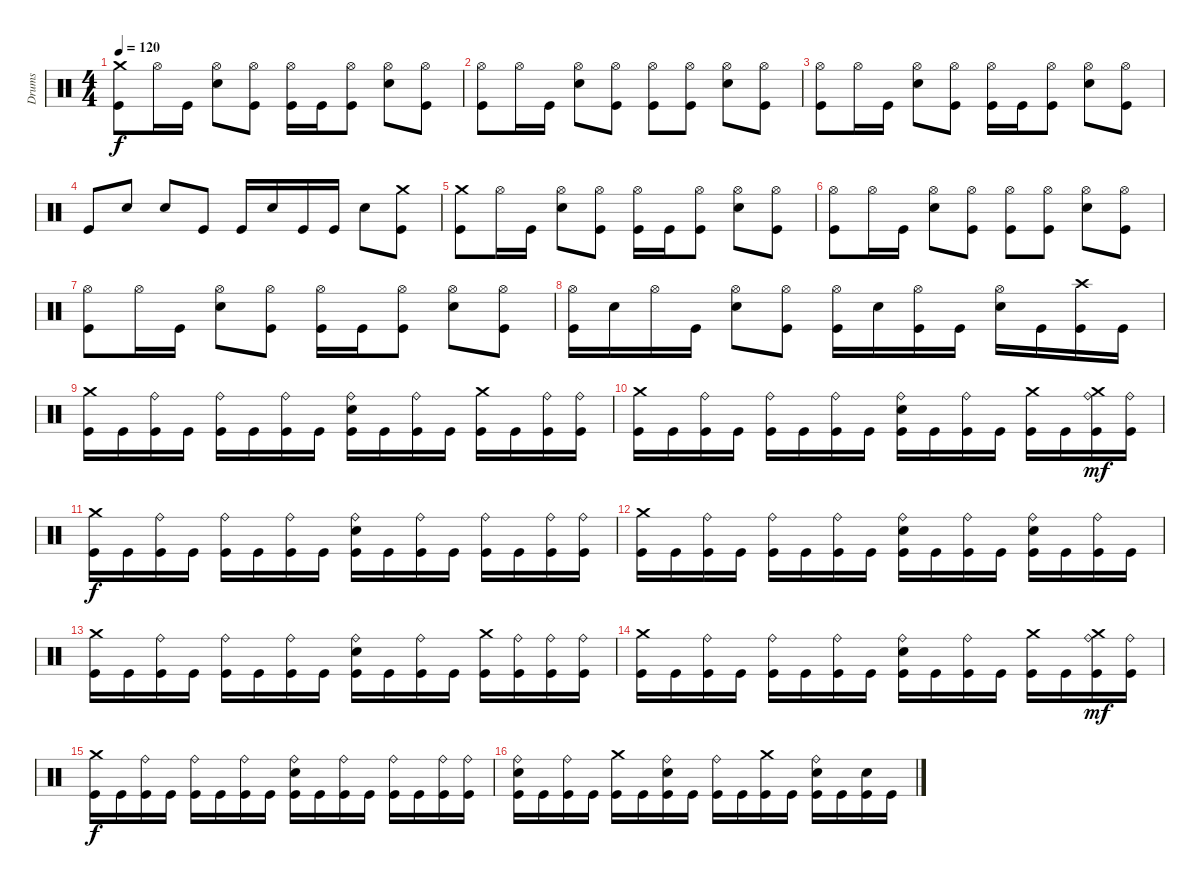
\track ("Drums" "Drums") {instrument percussion}
\staff {score}
\articulation defaults
\ts (4 4)
\tempo 120
\clef neutral
\ks c
("Kick (hit)" "Crash medium (hit)").8{dy f} "Hi-Hat (open)".16 "Kick (hit)".16 ("Electric Snare (hit)" "Hi-Hat (open)").8 ("Kick (hit)" "Hi-Hat (open)").8 ("Kick (hit)" "Hi-Hat (open)").16 "Kick (hit)".16 ("Kick (hit)" "Hi-Hat (open)").8 ("Electric Snare (hit)" "Hi-Hat (open)").8 ("Kick (hit)" "Hi-Hat (open)").8 |
("Kick (hit)" "Hi-Hat (open)").8 "Hi-Hat (open)".16 "Kick (hit)".16 ("Electric Snare (hit)" "Hi-Hat (open)").8 ("Kick (hit)" "Hi-Hat (open)").8 ("Kick (hit)" "Hi-Hat (open)").8 ("Kick (hit)" "Hi-Hat (open)").8 ("Electric Snare (hit)" "Hi-Hat (open)").8 ("Kick (hit)" "Hi-Hat (open)").8 |
("Kick (hit)" "Hi-Hat (open)").8 "Hi-Hat (open)".16 "Kick (hit)".16 ("Electric Snare (hit)" "Hi-Hat (open)").8 ("Kick (hit)" "Hi-Hat (open)").8 ("Kick (hit)" "Hi-Hat (open)").16 "Kick (hit)".16 ("Kick (hit)" "Hi-Hat (open)").8 ("Electric Snare (hit)" "Hi-Hat (open)").8 ("Kick (hit)" "Hi-Hat (open)").8 |
"Kick (hit)".8 "Electric Snare (hit)".8 "Electric Snare (hit)".8 "Kick (hit)".8 "Kick (hit)".16 "Electric Snare (hit)".16 "Kick (hit)".16 "Kick (hit)".16 "Electric Snare (hit)".8 ("Kick (hit)" "Crash medium (hit)").8 |
("Kick (hit)" "Crash medium (hit)").8 "Hi-Hat (open)".16 "Kick (hit)".16 ("Electric Snare (hit)" "Hi-Hat (open)").8 ("Kick (hit)" "Hi-Hat (open)").8 ("Kick (hit)" "Hi-Hat (open)").16 "Kick (hit)".16 ("Kick (hit)" "Hi-Hat (open)").8 ("Electric Snare (hit)" "Hi-Hat (open)").8 ("Kick (hit)" "Hi-Hat (open)").8 |
("Kick (hit)" "Hi-Hat (open)").8 "Hi-Hat (open)".16 "Kick (hit)".16 ("Electric Snare (hit)" "Hi-Hat (open)").8 ("Kick (hit)" "Hi-Hat (open)").8 ("Kick (hit)" "Hi-Hat (open)").8 ("Kick (hit)" "Hi-Hat (open)").8 ("Electric Snare (hit)" "Hi-Hat (open)").8 ("Kick (hit)" "Hi-Hat (open)").8 |
("Kick (hit)" "Hi-Hat (open)").8 "Hi-Hat (open)".16 "Kick (hit)".16 ("Electric Snare (hit)" "Hi-Hat (open)").8 ("Kick (hit)" "Hi-Hat (open)").8 ("Kick (hit)" "Hi-Hat (open)").16 "Kick (hit)".16 ("Kick (hit)" "Hi-Hat (open)").8 ("Electric Snare (hit)" "Hi-Hat (open)").8 ("Kick (hit)" "Hi-Hat (open)").8 |
("Kick (hit)" "Hi-Hat (open)").16 "Electric Snare (hit)".16 "Hi-Hat (open)".16 "Kick (hit)".16 ("Electric Snare (hit)" "Hi-Hat (open)").8 ("Kick (hit)" "Hi-Hat (open)").8 ("Kick (hit)" "Hi-Hat (open)").16 "Electric Snare (hit)".16 ("Kick (hit)" "Hi-Hat (open)").16 "Kick (hit)".16 ("Electric Snare (hit)" "Hi-Hat (open)").16 "Kick (hit)".16 ("Kick (hit)" "Crash high (hit)").16 "Kick (hit)".16 |
("Kick (hit)" "Crash medium (hit)").16 "Kick (hit)".16 ("Kick (hit)" "Ride (bell)").16 "Kick (hit)".16 ("Kick (hit)" "Ride (bell)").16 "Kick (hit)".16 ("Kick (hit)" "Ride (bell)").16 "Kick (hit)".16 ("Kick (hit)" "Electric Snare (hit)" "Ride (bell)").16 "Kick (hit)".16 ("Kick (hit)" "Ride (bell)").16 "Kick (hit)".16 ("Kick (hit)" "Crash medium (hit)").16 "Kick (hit)".16 ("Kick (hit)" "Ride (bell)").16 ("Kick (hit)" "Ride (bell)").16 |
("Kick (hit)" "Crash medium (hit)").16 "Kick (hit)".16 ("Kick (hit)" "Ride (bell)").16 "Kick (hit)".16 ("Kick (hit)" "Ride (bell)").16 "Kick (hit)".16 ("Kick (hit)" "Ride (bell)").16 "Kick (hit)".16 ("Kick (hit)" "Electric Snare (hit)" "Ride (bell)").16 "Kick (hit)".16 ("Kick (hit)" "Ride (bell)").16 "Kick (hit)".16 ("Kick (hit)" "Crash medium (hit)").16 "Kick (hit)".16 ("Kick (hit)" "Ride (bell)" "Crash medium (hit)").16{dy mf} ("Kick (hit)" "Ride (bell)").16 |
("Kick (hit)" "Crash medium (hit)").16{dy f} "Kick (hit)".16 ("Kick (hit)" "Ride (bell)").16 "Kick (hit)".16 ("Kick (hit)" "Ride (bell)").16 "Kick (hit)".16 ("Kick (hit)" "Ride (bell)").16 "Kick (hit)".16 ("Kick (hit)" "Electric Snare (hit)" "Ride (bell)").16 "Kick (hit)".16 ("Kick (hit)" "Ride (bell)").16 "Kick (hit)".16 ("Kick (hit)" "Ride (bell)").16 "Kick (hit)".16 ("Kick (hit)" "Ride (bell)").16 ("Kick (hit)" "Ride (bell)").16 |
("Kick (hit)" "Crash medium (hit)").16 "Kick (hit)".16 ("Kick (hit)" "Ride (bell)").16 "Kick (hit)".16 ("Kick (hit)" "Ride (bell)").16 "Kick (hit)".16 ("Kick (hit)" "Ride (bell)").16 "Kick (hit)".16 ("Kick (hit)" "Electric Snare (hit)" "Ride (bell)").16 "Kick (hit)".16 ("Kick (hit)" "Ride (bell)").16 "Kick (hit)".16 ("Kick (hit)" "Electric Snare (hit)" "Ride (bell)").16 "Kick (hit)".16 ("Kick (hit)" "Ride (bell)").16 "Kick (hit)".16 |
("Kick (hit)" "Crash medium (hit)").16 "Kick (hit)".16 ("Kick (hit)" "Ride (bell)").16 "Kick (hit)".16 ("Kick (hit)" "Ride (bell)").16 "Kick (hit)".16 ("Kick (hit)" "Ride (bell)").16 "Kick (hit)".16 ("Kick (hit)" "Electric Snare (hit)" "Ride (bell)").16 "Kick (hit)".16 ("Kick (hit)" "Ride (bell)").16 "Kick (hit)".16 ("Kick (hit)" "Crash medium (hit)").16 ("Kick (hit)" "Ride (bell)").16 ("Kick (hit)" "Ride (bell)").16 ("Kick (hit)" "Ride (bell)").16 |
("Kick (hit)" "Crash medium (hit)").16 "Kick (hit)".16 ("Kick (hit)" "Ride (bell)").16 "Kick (hit)".16 ("Kick (hit)" "Ride (bell)").16 "Kick (hit)".16 ("Kick (hit)" "Ride (bell)").16 "Kick (hit)".16 ("Kick (hit)" "Electric Snare (hit)" "Ride (bell)").16 "Kick (hit)".16 ("Kick (hit)" "Ride (bell)").16 "Kick (hit)".16 ("Kick (hit)" "Crash medium (hit)").16 "Kick (hit)".16 ("Kick (hit)" "Ride (bell)" "Crash medium (hit)").16{dy mf} ("Kick (hit)" "Ride (bell)").16 |
("Kick (hit)" "Crash medium (hit)").16{dy f} "Kick (hit)".16 ("Kick (hit)" "Ride (bell)").16 "Kick (hit)".16 ("Kick (hit)" "Ride (bell)").16 "Kick (hit)".16 ("Kick (hit)" "Ride (bell)").16 "Kick (hit)".16 ("Kick (hit)" "Electric Snare (hit)" "Ride (bell)").16 "Kick (hit)".16 ("Kick (hit)" "Ride (bell)").16 "Kick (hit)".16 ("Kick (hit)" "Ride (bell)").16 "Kick (hit)".16 ("Kick (hit)" "Ride (bell)").16 ("Kick (hit)" "Ride (bell)").16 |
("Kick (hit)" "Electric Snare (hit)" "Ride (bell)").16 "Kick (hit)".16 ("Kick (hit)" "Ride (bell)").16 "Kick (hit)".16 ("Kick (hit)" "Crash medium (hit)").16 "Kick (hit)".16 ("Kick (hit)" "Electric Snare (hit)" "Ride (bell)").16 "Kick (hit)".16 ("Kick (hit)" "Ride (bell)").16 "Kick (hit)".16 ("Kick (hit)" "Crash medium (hit)").16 "Kick (hit)".16 ("Kick (hit)" "Electric Snare (hit)" "Ride (bell)").16 "Kick (hit)".16 ("Kick (hit)" "Electric Snare (hit)").16 "Kick (hit)".16
